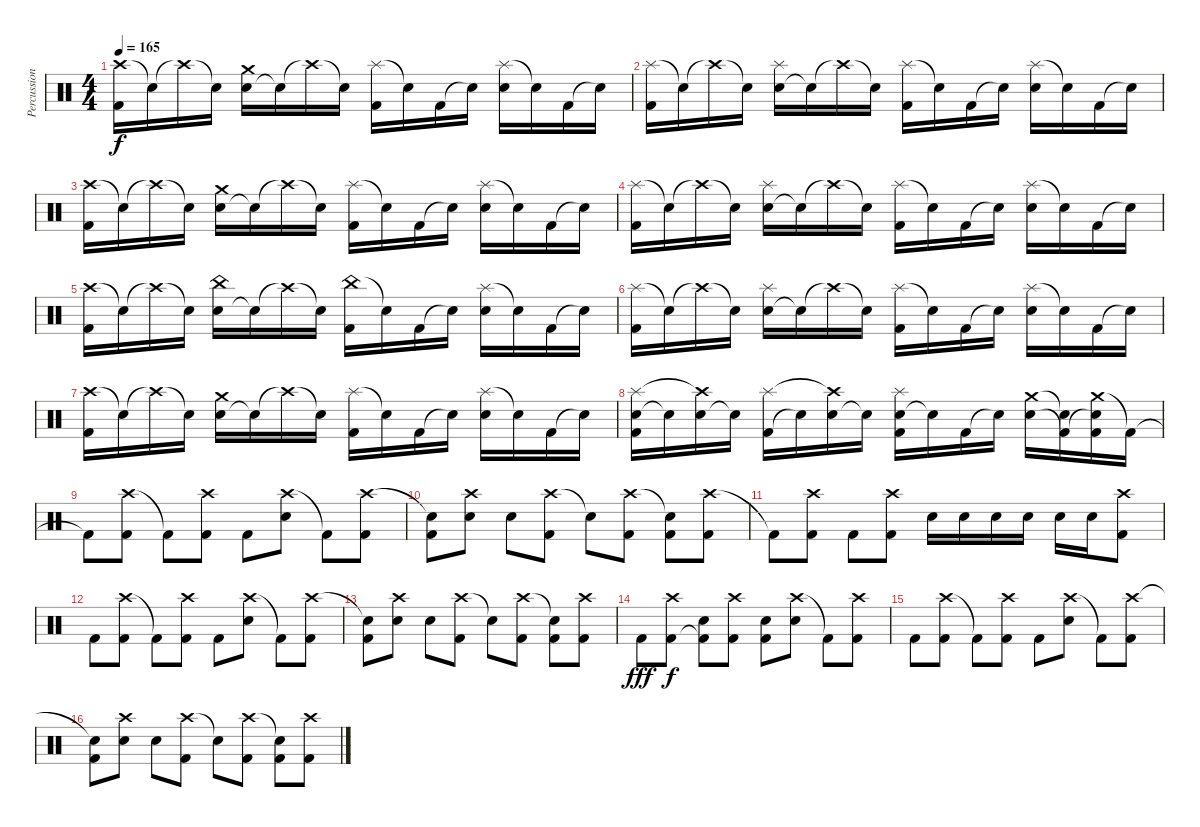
\track ("Percussion" "Percussion") {instrument percussion}
\staff {score}
\articulation defaults
\ts (4 4)
\tempo 165
\clef neutral
\ks c
("Crash high (hit)" "Kick (hit) 2").16{dy f} "Snare (hit)"{t}.16 "Crash high (hit)"{t}.16 "Snare (hit)"{t}.16 ("Electric Snare (hit)" "Crash medium (hit)").16 "Snare (hit)"{t}.16 "Crash high (hit)"{t}.16 "Snare (hit)"{t}.16 ("Splash (hit)" "Kick (hit) 2").16 "Snare (hit)"{t}.16 "Kick (hit) 2".16 "Snare (hit)"{t}.16 ("Splash (hit)" "Electric Snare (hit)").16 "Snare (hit)"{t}.16 "Kick (hit) 2".16 "Snare (hit)"{t}.16 |
("Splash (hit)" "Kick (hit) 2").16 "Snare (hit)"{t}.16 "Crash high (hit)"{t}.16 "Snare (hit)"{t}.16 ("Electric Snare (hit)" "Splash (hit)").16 "Snare (hit)"{t}.16 "Crash high (hit)"{t}.16 "Snare (hit)"{t}.16 ("Splash (hit)" "Kick (hit) 2").16 "Snare (hit)"{t}.16 "Kick (hit) 2".16 "Snare (hit)"{t}.16 ("Splash (hit)" "Electric Snare (hit)").16 "Snare (hit)"{t}.16 "Kick (hit) 2".16 "Snare (hit)"{t}.16 |
("Crash high (hit)" "Kick (hit) 2").16 "Snare (hit)"{t}.16 "Crash high (hit)"{t}.16 "Snare (hit)"{t}.16 ("Electric Snare (hit)" "Crash medium (hit)").16 "Snare (hit)"{t}.16 "Crash high (hit)"{t}.16 "Snare (hit)"{t}.16 ("Splash (hit)" "Kick (hit) 2").16 "Snare (hit)"{t}.16 "Kick (hit) 2".16 "Snare (hit)"{t}.16 ("Splash (hit)" "Electric Snare (hit)").16 "Snare (hit)"{t}.16 "Kick (hit) 2".16 "Snare (hit)"{t}.16 |
("Splash (hit)" "Kick (hit) 2").16 "Snare (hit)"{t}.16 "Crash high (hit)"{t}.16 "Snare (hit)"{t}.16 ("Electric Snare (hit)" "Splash (hit)").16 "Snare (hit)"{t}.16 "Crash high (hit)"{t}.16 "Snare (hit)"{t}.16 ("Splash (hit)" "Kick (hit) 2").16 "Snare (hit)"{t}.16 "Kick (hit) 2".16 "Snare (hit)"{t}.16 ("Splash (hit)" "Electric Snare (hit)").16 "Snare (hit)"{t}.16 "Kick (hit) 2".16 "Snare (hit)"{t}.16 |
("Crash high (hit)" "Kick (hit) 2").16 "Snare (hit)"{t}.16 "Crash high (hit)"{t}.16 "Snare (hit)"{t}.16 ("Electric Snare (hit)" "China (hit)").16 "Snare (hit)"{t}.16 "Crash high (hit)"{t}.16 "Snare (hit)"{t}.16 ("China (hit)" "Kick (hit) 2").16 "Snare (hit)"{t}.16 "Kick (hit) 2".16 "Snare (hit)"{t}.16 ("Splash (hit)" "Electric Snare (hit)").16 "Snare (hit)"{t}.16 "Kick (hit) 2".16 "Snare (hit)"{t}.16 |
("Splash (hit)" "Kick (hit) 2").16 "Snare (hit)"{t}.16 "Crash high (hit)"{t}.16 "Snare (hit)"{t}.16 ("Electric Snare (hit)" "Splash (hit)").16 "Snare (hit)"{t}.16 "Crash high (hit)"{t}.16 "Snare (hit)"{t}.16 ("Splash (hit)" "Kick (hit) 2").16 "Snare (hit)"{t}.16 "Kick (hit) 2".16 "Snare (hit)"{t}.16 ("Splash (hit)" "Electric Snare (hit)").16 "Snare (hit)"{t}.16 "Kick (hit) 2".16 "Snare (hit)"{t}.16 |
("Crash high (hit)" "Kick (hit) 2").16 "Snare (hit)"{t}.16 "Crash high (hit)"{t}.16 "Snare (hit)"{t}.16 ("Electric Snare (hit)" "Crash medium (hit)").16 "Snare (hit)"{t}.16 "Crash high (hit)"{t}.16 "Snare (hit)"{t}.16 ("Splash (hit)" "Kick (hit) 2").16 "Snare (hit)"{t}.16 "Kick (hit) 2".16 "Snare (hit)"{t}.16 ("Splash (hit)" "Electric Snare (hit)").16 "Snare (hit)"{t}.16 "Kick (hit) 2".16 "Snare (hit)"{t}.16 |
("Electric Snare (hit)" "Splash (hit)" "Kick (hit) 2").16 "Snare (hit)"{t}.16 ("Electric Snare (hit)" "Crash high (hit)"{t}).16 "Snare (hit)"{t}.16 ("Kick (hit) 2" "Splash (hit)").16 "Snare (hit)"{t}.16 ("Electric Snare (hit)" "Crash high (hit)"{t}).16 "Snare (hit)"{t}.16 ("Electric Snare (hit)" "Splash (hit)" "Kick (hit) 2").16 "Snare (hit)"{t}.16 "Kick (hit) 2".16 "Snare (hit)"{t}.16 ("Crash medium (hit)" "Electric Snare (hit)").16 ("Snare (hit)"{t} "Kick (hit) 2"{t}).16 ("Crash medium (hit)" "Snare (hit)"{t} "Kick (hit) 2").16 "Kick (hit) 2"{t}.16 |
"Kick (hit) 2"{t}.8 ("Crash high (hit)" "Kick (hit) 2").8 "Kick (hit) 2"{t}.8 ("Crash high (hit)" "Kick (hit) 2").8 "Kick (hit) 2".8 ("Crash high (hit)" "Electric Snare (hit)").8 "Kick (hit) 2"{t}.8 ("Crash high (hit)" "Kick (hit) 2").8 |
("Electric Snare (hit)"{t} "Kick (hit) 2").8 ("Crash high (hit)" "Electric Snare (hit)").8 "Electric Snare (hit)".8 ("Crash high (hit)" "Kick (hit) 2").8 "Electric Snare (hit)"{t}.8 ("Crash high (hit)" "Kick (hit) 2").8 ("Snare (hit)"{t} "Kick (hit) 2").8 ("Crash high (hit)" "Kick (hit) 2").8 |
"Kick (hit) 2"{t}.8 ("Crash high (hit)" "Kick (hit) 2").8 "Kick (hit) 2".8 ("Crash high (hit)" "Kick (hit) 2").8 "Electric Snare (hit)".16 "Electric Snare (hit)".16 "Electric Snare (hit)".16 "Electric Snare (hit)".16 "Electric Snare (hit)".16 "Electric Snare (hit)".16 ("Crash high (hit)" "Kick (hit) 2").8 |
"Kick (hit) 2".8 ("Crash high (hit)" "Kick (hit) 2").8 "Kick (hit) 2"{t}.8 ("Crash high (hit)" "Kick (hit) 2").8 "Kick (hit) 2".8 ("Crash high (hit)" "Electric Snare (hit)").8 "Kick (hit) 2"{t}.8 ("Crash high (hit)" "Kick (hit) 2").8 |
("Electric Snare (hit)"{t} "Kick (hit) 2").8 ("Crash high (hit)" "Electric Snare (hit)").8 "Electric Snare (hit)".8 ("Crash high (hit)" "Kick (hit) 2").8 "Electric Snare (hit)"{t}.8 ("Crash high (hit)" "Kick (hit) 2").8 ("Snare (hit)"{t} "Kick (hit) 2").8 ("Crash high (hit)" "Kick (hit) 2").8 |
"Kick (hit) 2".8{dy fff} ("Crash high (hit)" "Kick (hit) 2").8{dy f} ("Electric Snare (hit)" "Kick (hit) 2"{t}).8 ("Crash high (hit)" "Kick (hit) 2").8 ("Electric Snare (hit)" "Kick (hit) 2").8 ("Crash high (hit)" "Electric Snare (hit)").8 "Kick (hit) 2"{t}.8 ("Crash high (hit)" "Kick (hit) 2").8 |
"Kick (hit) 2".8 ("Crash high (hit)" "Kick (hit) 2").8 "Kick (hit) 2"{t}.8 ("Crash high (hit)" "Kick (hit) 2").8 "Kick (hit) 2".8 ("Crash high (hit)" "Electric Snare (hit)").8 "Kick (hit) 2"{t}.8 ("Crash high (hit)" "Kick (hit) 2").8 |
("Electric Snare (hit)"{t} "Kick (hit) 2").8 ("Crash high (hit)" "Electric Snare (hit)").8 "Electric Snare (hit)".8 ("Crash high (hit)" "Kick (hit) 2").8 "Electric Snare (hit)"{t}.8 ("Crash high (hit)" "Kick (hit) 2").8 ("Snare (hit)"{t} "Kick (hit) 2").8 ("Crash high (hit)" "Kick (hit) 2").8
